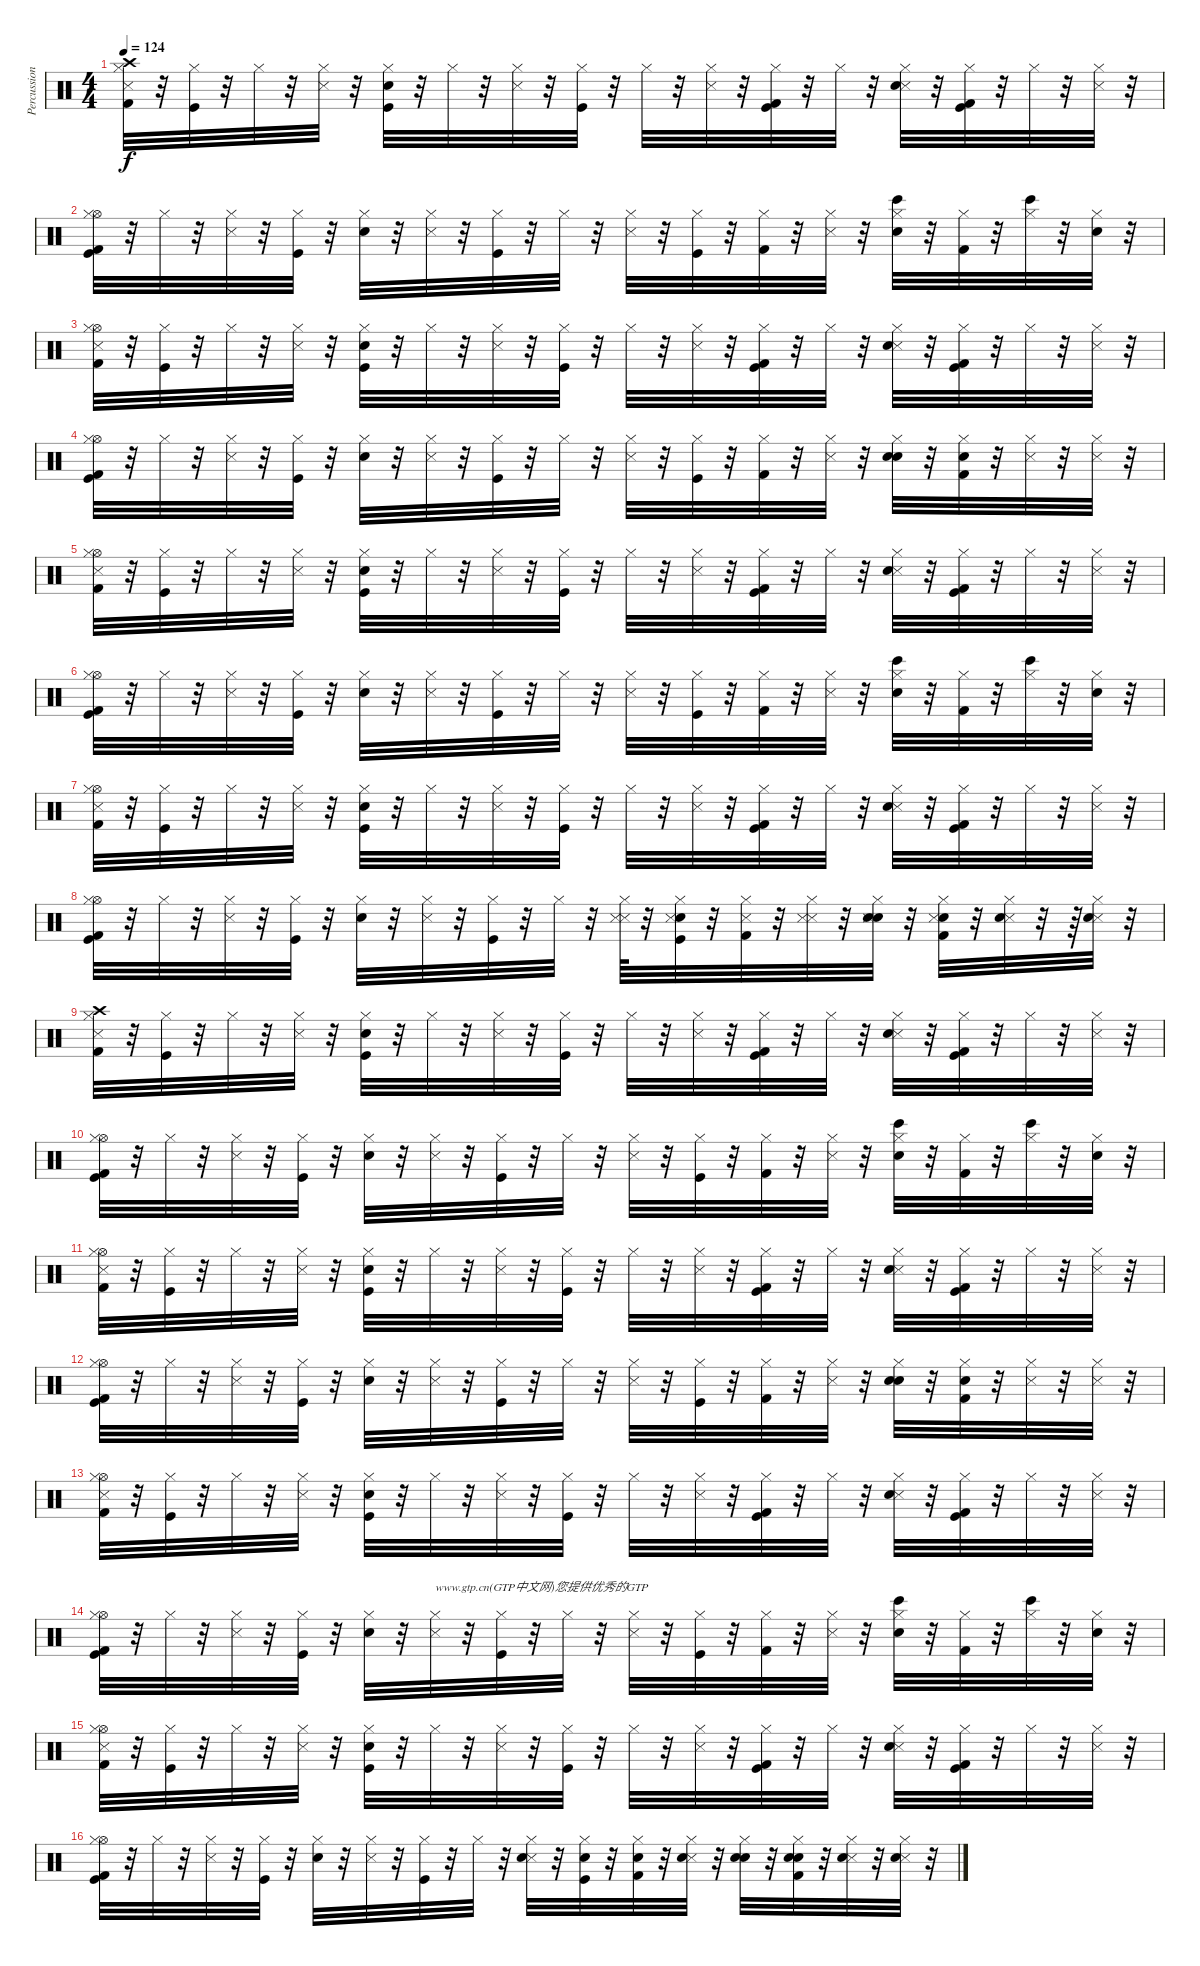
\track ("Percussions" "Percussion") {instrument percussion}
\staff {score}
\articulation defaults
\ts (4 4)
\tempo 124
\clef neutral
\ks c
("Metronome (hit)" "Crash high (hit)" "Kick (hit) 2" "Hi-Hat (closed)").32{dy f} r.32 ("Kick (hit)" "Hi-Hat (closed)").32 r.32 "Hi-Hat (closed)".32 r.32 ("Metronome (hit)" "Hi-Hat (closed)").32 r.32 ("Kick (hit)" "Hi-Hat (closed)" "Electric Snare (hit)").32 r.32 "Hi-Hat (closed)".32 r.32 ("Metronome (hit)" "Hi-Hat (closed)").32 r.32 ("Kick (hit)" "Hi-Hat (closed)").32 r.32 "Hi-Hat (closed)".32 r.32 ("Metronome (hit)" "Hi-Hat (closed)").32 r.32 ("Kick (hit)" "Hi-Hat (closed)" "Kick (hit) 2").32 r.32 "Hi-Hat (closed)".32 r.32 ("Metronome (hit)" "Hi-Hat (closed)" "Electric Snare (hit)").32 r.32 ("Kick (hit)" "Kick (hit) 2" "Hi-Hat (closed)").32 r.32 "Hi-Hat (closed)".32 r.32 ("Metronome (hit)" "Hi-Hat (closed)").32 r.32 |
("Kick (hit)" "Hi-Hat (open)" "Kick (hit) 2" "Hi-Hat (closed)").32 r.32 "Hi-Hat (closed)".32 r.32 ("Metronome (hit)" "Hi-Hat (closed)").32 r.32 ("Kick (hit)" "Hi-Hat (closed)").32 r.32 ("Electric Snare (hit)" "Hi-Hat (closed)").32 r.32 ("Metronome (hit)" "Hi-Hat (closed)").32 r.32 ("Kick (hit)" "Hi-Hat (closed)").32 r.32 "Hi-Hat (closed)".32 r.32 ("Metronome (hit)" "Hi-Hat (closed)").32 r.32 ("Kick (hit)" "Hi-Hat (closed)").32 r.32 ("Hi-Hat (closed)" "Kick (hit) 2").32 r.32 ("Metronome (hit)" "Hi-Hat (closed)").32 r.32 ("Bongo High (hit)" "Electric Snare (hit)" "Hi-Hat (closed)").32 r.32 ("Kick (hit) 2" "Hi-Hat (closed)").32 r.32 ("Bongo High (hit)" "Hi-Hat (closed)").32 r.32 ("Hi-Hat (closed)" "Electric Snare (hit)").32 r.32 |
("Metronome (hit)" "Kick (hit) 2" "Hi-Hat (open)" "Hi-Hat (closed)").32 r.32 ("Kick (hit)" "Hi-Hat (closed)").32 r.32 "Hi-Hat (closed)".32 r.32 ("Metronome (hit)" "Hi-Hat (closed)").32 r.32 ("Kick (hit)" "Electric Snare (hit)" "Hi-Hat (closed)").32 r.32 "Hi-Hat (closed)".32 r.32 ("Metronome (hit)" "Hi-Hat (closed)").32 r.32 ("Kick (hit)" "Hi-Hat (closed)").32 r.32 "Hi-Hat (closed)".32 r.32 ("Metronome (hit)" "Hi-Hat (closed)").32 r.32 ("Kick (hit)" "Kick (hit) 2" "Hi-Hat (closed)").32 r.32 "Hi-Hat (closed)".32 r.32 ("Metronome (hit)" "Electric Snare (hit)" "Hi-Hat (closed)").32 r.32 ("Kick (hit)" "Kick (hit) 2" "Hi-Hat (closed)").32 r.32 "Hi-Hat (closed)".32 r.32 ("Metronome (hit)" "Hi-Hat (closed)").32 r.32 |
("Kick (hit)" "Kick (hit) 2" "Hi-Hat (open)" "Hi-Hat (closed)").32 r.32 "Hi-Hat (closed)".32 r.32 ("Metronome (hit)" "Hi-Hat (closed)").32 r.32 ("Kick (hit)" "Hi-Hat (closed)").32 r.32 ("Hi-Hat (closed)" "Electric Snare (hit)").32 r.32 ("Metronome (hit)" "Hi-Hat (closed)").32 r.32 ("Kick (hit)" "Hi-Hat (closed)").32 r.32 "Hi-Hat (closed)".32 r.32 ("Metronome (hit)" "Hi-Hat (closed)").32 r.32 ("Kick (hit)" "Hi-Hat (closed)").32 r.32 ("Kick (hit) 2" "Hi-Hat (closed)").32 r.32 ("Metronome (hit)" "Hi-Hat (closed)").32 r.32 ("Hand Clap (hit)" "Hi-Hat (closed)" "Electric Snare (hit)").32 r.32 ("Hand Clap (hit)" "Kick (hit) 2" "Hi-Hat (closed)").32 r.32 ("Snare (side stick) 3" "Hi-Hat (closed)").32 r.32 ("Snare (side stick) 3" "Hi-Hat (closed)").32 r.32 |
("Metronome (hit)" "Kick (hit) 2" "Hi-Hat (open)" "Hi-Hat (closed)").32 r.32 ("Kick (hit)" "Hi-Hat (closed)").32 r.32 "Hi-Hat (closed)".32 r.32 ("Metronome (hit)" "Hi-Hat (closed)").32 r.32 ("Kick (hit)" "Hi-Hat (closed)" "Electric Snare (hit)").32 r.32 "Hi-Hat (closed)".32 r.32 ("Metronome (hit)" "Hi-Hat (closed)").32 r.32 ("Kick (hit)" "Hi-Hat (closed)").32 r.32 "Hi-Hat (closed)".32 r.32 ("Metronome (hit)" "Hi-Hat (closed)").32 r.32 ("Kick (hit)" "Hi-Hat (closed)" "Kick (hit) 2").32 r.32 "Hi-Hat (closed)".32 r.32 ("Metronome (hit)" "Hi-Hat (closed)" "Electric Snare (hit)").32 r.32 ("Kick (hit)" "Kick (hit) 2" "Hi-Hat (closed)").32 r.32 "Hi-Hat (closed)".32 r.32 ("Metronome (hit)" "Hi-Hat (closed)").32 r.32 |
("Kick (hit)" "Hi-Hat (open)" "Kick (hit) 2" "Hi-Hat (closed)").32 r.32 "Hi-Hat (closed)".32 r.32 ("Metronome (hit)" "Hi-Hat (closed)").32 r.32 ("Kick (hit)" "Hi-Hat (closed)").32 r.32 ("Electric Snare (hit)" "Hi-Hat (closed)").32 r.32 ("Metronome (hit)" "Hi-Hat (closed)").32 r.32 ("Kick (hit)" "Hi-Hat (closed)").32 r.32 "Hi-Hat (closed)".32 r.32 ("Metronome (hit)" "Hi-Hat (closed)").32 r.32 ("Kick (hit)" "Hi-Hat (closed)").32 r.32 ("Hi-Hat (closed)" "Kick (hit) 2").32 r.32 ("Metronome (hit)" "Hi-Hat (closed)").32 r.32 ("Bongo High (hit)" "Electric Snare (hit)" "Hi-Hat (closed)").32 r.32 ("Kick (hit) 2" "Hi-Hat (closed)").32 r.32 ("Bongo High (hit)" "Hi-Hat (closed)").32 r.32 ("Hi-Hat (closed)" "Electric Snare (hit)").32 r.32 |
("Metronome (hit)" "Kick (hit) 2" "Hi-Hat (open)" "Hi-Hat (closed)").32 r.32 ("Kick (hit)" "Hi-Hat (closed)").32 r.32 "Hi-Hat (closed)".32 r.32 ("Metronome (hit)" "Hi-Hat (closed)").32 r.32 ("Kick (hit)" "Electric Snare (hit)" "Hi-Hat (closed)").32 r.32 "Hi-Hat (closed)".32 r.32 ("Metronome (hit)" "Hi-Hat (closed)").32 r.32 ("Kick (hit)" "Hi-Hat (closed)").32 r.32 "Hi-Hat (closed)".32 r.32 ("Metronome (hit)" "Hi-Hat (closed)").32 r.32 ("Kick (hit)" "Kick (hit) 2" "Hi-Hat (closed)").32 r.32 "Hi-Hat (closed)".32 r.32 ("Metronome (hit)" "Electric Snare (hit)" "Hi-Hat (closed)").32 r.32 ("Kick (hit)" "Kick (hit) 2" "Hi-Hat (closed)").32 r.32 "Hi-Hat (closed)".32 r.32 ("Metronome (hit)" "Hi-Hat (closed)").32 r.32 |
("Kick (hit)" "Kick (hit) 2" "Hi-Hat (open)" "Hi-Hat (closed)").32 r.32 "Hi-Hat (closed)".32 r.32 ("Metronome (hit)" "Hi-Hat (closed)").32 r.32 ("Kick (hit)" "Hi-Hat (closed)").32 r.32 ("Hi-Hat (closed)" "Electric Snare (hit)").32 r.32 ("Metronome (hit)" "Hi-Hat (closed)").32 r.32 ("Kick (hit)" "Hi-Hat (closed)").32 r.32 "Hi-Hat (closed)".32 r.32 ("Metronome (hit)" "Hi-Hat (closed)" "Snare (side stick) 3").64 r.32 ("Kick (hit)" "Electric Snare (hit)" "Hi-Hat (closed)" "Snare (side stick) 3").32 r.32 ("Kick (hit) 2" "Hi-Hat (closed)" "Snare (side stick) 3").32 r.32 ("Metronome (hit)" "Hi-Hat (closed)" "Snare (side stick) 3").32 r.32 ("Hand Clap (hit)" "Hi-Hat (closed)" "Electric Snare (hit)" "Snare (side stick) 3").32 r.32 ("Hand Clap (hit)" "Kick (hit) 2" "Hi-Hat (closed)" "Snare (side stick) 3").32 r.32 ("Snare (side stick) 3" "Electric Snare (hit)" "Hi-Hat (closed)").32 r.32 r.64 ("Snare (side stick) 3" "Electric Snare (hit)" "Hi-Hat (closed)").32 r.32 |
("Metronome (hit)" "Crash high (hit)" "Kick (hit) 2" "Hi-Hat (closed)").32 r.32 ("Kick (hit)" "Hi-Hat (closed)").32 r.32 "Hi-Hat (closed)".32 r.32 ("Metronome (hit)" "Hi-Hat (closed)").32 r.32 ("Kick (hit)" "Hi-Hat (closed)" "Electric Snare (hit)").32 r.32 "Hi-Hat (closed)".32 r.32 ("Metronome (hit)" "Hi-Hat (closed)").32 r.32 ("Kick (hit)" "Hi-Hat (closed)").32 r.32 "Hi-Hat (closed)".32 r.32 ("Metronome (hit)" "Hi-Hat (closed)").32 r.32 ("Kick (hit)" "Hi-Hat (closed)" "Kick (hit) 2").32 r.32 "Hi-Hat (closed)".32 r.32 ("Metronome (hit)" "Hi-Hat (closed)" "Electric Snare (hit)").32 r.32 ("Kick (hit)" "Kick (hit) 2" "Hi-Hat (closed)").32 r.32 "Hi-Hat (closed)".32 r.32 ("Metronome (hit)" "Hi-Hat (closed)").32 r.32 |
("Kick (hit)" "Hi-Hat (open)" "Kick (hit) 2" "Hi-Hat (closed)").32 r.32 "Hi-Hat (closed)".32 r.32 ("Metronome (hit)" "Hi-Hat (closed)").32 r.32 ("Kick (hit)" "Hi-Hat (closed)").32 r.32 ("Electric Snare (hit)" "Hi-Hat (closed)").32 r.32 ("Metronome (hit)" "Hi-Hat (closed)").32 r.32 ("Kick (hit)" "Hi-Hat (closed)").32 r.32 "Hi-Hat (closed)".32 r.32 ("Metronome (hit)" "Hi-Hat (closed)").32 r.32 ("Kick (hit)" "Hi-Hat (closed)").32 r.32 ("Hi-Hat (closed)" "Kick (hit) 2").32 r.32 ("Metronome (hit)" "Hi-Hat (closed)").32 r.32 ("Bongo High (hit)" "Electric Snare (hit)" "Hi-Hat (closed)").32 r.32 ("Kick (hit) 2" "Hi-Hat (closed)").32 r.32 ("Bongo High (hit)" "Hi-Hat (closed)").32 r.32 ("Hi-Hat (closed)" "Electric Snare (hit)").32 r.32 |
("Metronome (hit)" "Kick (hit) 2" "Hi-Hat (open)" "Hi-Hat (closed)").32 r.32 ("Kick (hit)" "Hi-Hat (closed)").32 r.32 "Hi-Hat (closed)".32 r.32 ("Metronome (hit)" "Hi-Hat (closed)").32 r.32 ("Kick (hit)" "Electric Snare (hit)" "Hi-Hat (closed)").32 r.32 "Hi-Hat (closed)".32 r.32 ("Metronome (hit)" "Hi-Hat (closed)").32 r.32 ("Kick (hit)" "Hi-Hat (closed)").32 r.32 "Hi-Hat (closed)".32 r.32 ("Metronome (hit)" "Hi-Hat (closed)").32 r.32 ("Kick (hit)" "Kick (hit) 2" "Hi-Hat (closed)").32 r.32 "Hi-Hat (closed)".32 r.32 ("Metronome (hit)" "Electric Snare (hit)" "Hi-Hat (closed)").32 r.32 ("Kick (hit)" "Kick (hit) 2" "Hi-Hat (closed)").32 r.32 "Hi-Hat (closed)".32 r.32 ("Metronome (hit)" "Hi-Hat (closed)").32 r.32 |
("Kick (hit)" "Kick (hit) 2" "Hi-Hat (open)" "Hi-Hat (closed)").32 r.32 "Hi-Hat (closed)".32 r.32 ("Metronome (hit)" "Hi-Hat (closed)").32 r.32 ("Kick (hit)" "Hi-Hat (closed)").32 r.32 ("Hi-Hat (closed)" "Electric Snare (hit)").32 r.32 ("Metronome (hit)" "Hi-Hat (closed)").32 r.32 ("Kick (hit)" "Hi-Hat (closed)").32 r.32 "Hi-Hat (closed)".32 r.32 ("Metronome (hit)" "Hi-Hat (closed)").32 r.32 ("Kick (hit)" "Hi-Hat (closed)").32 r.32 ("Kick (hit) 2" "Hi-Hat (closed)").32 r.32 ("Metronome (hit)" "Hi-Hat (closed)").32 r.32 ("Hand Clap (hit)" "Hi-Hat (closed)" "Electric Snare (hit)").32 r.32 ("Hand Clap (hit)" "Kick (hit) 2" "Hi-Hat (closed)").32 r.32 ("Snare (side stick) 3" "Hi-Hat (closed)").32 r.32 ("Snare (side stick) 3" "Hi-Hat (closed)").32 r.32 |
("Metronome (hit)" "Kick (hit) 2" "Hi-Hat (open)" "Hi-Hat (closed)").32 r.32 ("Kick (hit)" "Hi-Hat (closed)").32 r.32 "Hi-Hat (closed)".32 r.32 ("Metronome (hit)" "Hi-Hat (closed)").32 r.32 ("Kick (hit)" "Hi-Hat (closed)" "Electric Snare (hit)").32 r.32 "Hi-Hat (closed)".32 r.32 ("Metronome (hit)" "Hi-Hat (closed)").32 r.32 ("Kick (hit)" "Hi-Hat (closed)").32 r.32 "Hi-Hat (closed)".32 r.32 ("Metronome (hit)" "Hi-Hat (closed)").32 r.32 ("Kick (hit)" "Hi-Hat (closed)" "Kick (hit) 2").32 r.32 "Hi-Hat (closed)".32 r.32 ("Metronome (hit)" "Hi-Hat (closed)" "Electric Snare (hit)").32 r.32 ("Kick (hit)" "Kick (hit) 2" "Hi-Hat (closed)").32 r.32 "Hi-Hat (closed)".32 r.32 ("Metronome (hit)" "Hi-Hat (closed)").32 r.32 |
("Kick (hit)" "Hi-Hat (open)" "Kick (hit) 2" "Hi-Hat (closed)").32 r.32 "Hi-Hat (closed)".32 r.32 ("Metronome (hit)" "Hi-Hat (closed)").32 r.32 ("Kick (hit)" "Hi-Hat (closed)").32 r.32 ("Electric Snare (hit)" "Hi-Hat (closed)").32 r.32 ("Metronome (hit)" "Hi-Hat (closed)").32{txt "www.gtp.cn(GTP中文网)您提供优秀的GTP"} r.32 ("Kick (hit)" "Hi-Hat (closed)").32 r.32 "Hi-Hat (closed)".32 r.32 ("Metronome (hit)" "Hi-Hat (closed)").32 r.32 ("Kick (hit)" "Hi-Hat (closed)").32 r.32 ("Hi-Hat (closed)" "Kick (hit) 2").32 r.32 ("Metronome (hit)" "Hi-Hat (closed)").32 r.32 ("Bongo High (hit)" "Electric Snare (hit)" "Hi-Hat (closed)").32 r.32 ("Kick (hit) 2" "Hi-Hat (closed)").32 r.32 ("Bongo High (hit)" "Hi-Hat (closed)").32 r.32 ("Hi-Hat (closed)" "Electric Snare (hit)").32 r.32 |
("Metronome (hit)" "Kick (hit) 2" "Hi-Hat (open)" "Hi-Hat (closed)").32 r.32 ("Kick (hit)" "Hi-Hat (closed)").32 r.32 "Hi-Hat (closed)".32 r.32 ("Metronome (hit)" "Hi-Hat (closed)").32 r.32 ("Kick (hit)" "Electric Snare (hit)" "Hi-Hat (closed)").32 r.32 "Hi-Hat (closed)".32 r.32 ("Metronome (hit)" "Hi-Hat (closed)").32 r.32 ("Kick (hit)" "Hi-Hat (closed)").32 r.32 "Hi-Hat (closed)".32 r.32 ("Metronome (hit)" "Hi-Hat (closed)").32 r.32 ("Kick (hit)" "Kick (hit) 2" "Hi-Hat (closed)").32 r.32 "Hi-Hat (closed)".32 r.32 ("Metronome (hit)" "Electric Snare (hit)" "Hi-Hat (closed)").32 r.32 ("Kick (hit)" "Kick (hit) 2" "Hi-Hat (closed)").32 r.32 "Hi-Hat (closed)".32 r.32 ("Metronome (hit)" "Hi-Hat (closed)").32 r.32 |
("Kick (hit)" "Kick (hit) 2" "Hi-Hat (open)" "Hi-Hat (closed)").32 r.32 "Hi-Hat (closed)".32 r.32 ("Metronome (hit)" "Hi-Hat (closed)").32 r.32 ("Kick (hit)" "Hi-Hat (closed)").32 r.32 ("Hi-Hat (closed)" "Electric Snare (hit)").32 r.32 ("Metronome (hit)" "Hi-Hat (closed)").32 r.32 ("Kick (hit)" "Hi-Hat (closed)").32 r.32 "Hi-Hat (closed)".32 r.32 ("Metronome (hit)" "Electric Snare (hit)" "Hi-Hat (closed)").32 r.32 ("Kick (hit)" "Electric Snare (hit)" "Hi-Hat (closed)").32 r.32 ("Electric Snare (hit)" "Kick (hit) 2" "Hi-Hat (closed)").32 r.32 ("Metronome (hit)" "Electric Snare (hit)" "Hi-Hat (closed)").32 r.32 ("Hand Clap (hit)" "Hi-Hat (closed)" "Electric Snare (hit)").32 r.32 ("Hand Clap (hit)" "Electric Snare (hit)" "Kick (hit) 2" "Hi-Hat (closed)").32 r.32 ("Snare (side stick) 3" "Electric Snare (hit)" "Hi-Hat (closed)").32 r.32 ("Snare (side stick) 3" "Electric Snare (hit)" "Hi-Hat (closed)").32 r.32
